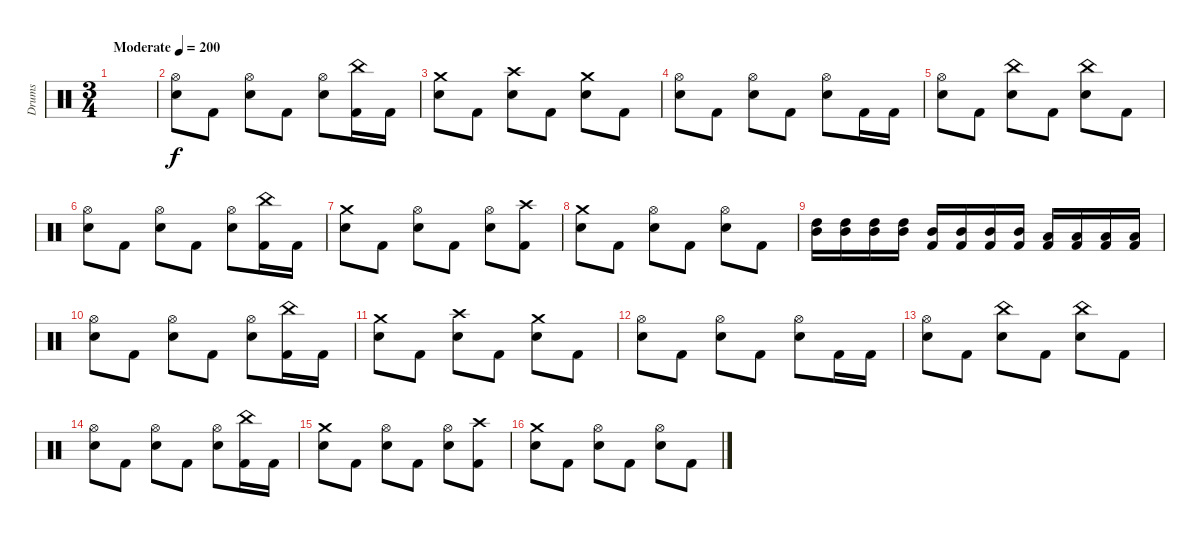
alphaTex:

\track ("Drums" "Drums") {instrument percussion}
\staff {score}
\articulation defaults
\ts (3 4)
\tempo (200 "Moderate")
\clef neutral
\ks c
|
("Hi-Hat (open)" "Snare (hit) 2").8 "Kick (hit) 2".8 ("Hi-Hat (open)" "Snare (hit) 2").8 "Kick (hit) 2".8 ("Hi-Hat (open)" "Snare (hit) 2").8 ("China (hit)" "Kick (hit) 2").16 "Kick (hit) 2".16 |
("Crash medium (hit)" "Snare (hit) 2").8 "Kick (hit) 2".8 ("Crash high (hit)" "Snare (hit) 2").8 "Kick (hit) 2".8 ("Crash medium (hit)" "Snare (hit) 2").8 "Kick (hit) 2".8 |
("Hi-Hat (open)" "Snare (hit) 2").8 "Kick (hit) 2".8 ("Hi-Hat (open)" "Snare (hit) 2").8 "Kick (hit) 2".8 ("Hi-Hat (open)" "Snare (hit) 2").8 "Kick (hit) 2".16 "Kick (hit) 2".16 |
("Hi-Hat (open)" "Snare (hit) 2").8 "Kick (hit) 2".8 ("China (hit)" "Snare (hit) 2").8 "Kick (hit) 2".8 ("China (hit)" "Snare (hit) 2").8 "Kick (hit) 2".8 |
("Hi-Hat (open)" "Snare (hit) 2").8 "Kick (hit) 2".8 ("Hi-Hat (open)" "Snare (hit) 2").8 "Kick (hit) 2".8 ("Hi-Hat (open)" "Snare (hit) 2").8 ("China (hit)" "Kick (hit) 2").16 "Kick (hit) 2".16 |
("Crash medium (hit)" "Snare (hit) 2").8 "Kick (hit) 2".8 ("Hi-Hat (open)" "Snare (hit) 2").8 "Kick (hit) 2".8 ("Hi-Hat (open)" "Snare (hit) 2").8 ("Crash high (hit)" "Kick (hit) 2").8 |
("Crash medium (hit)" "Snare (hit) 2").8 "Kick (hit) 2".8 ("Hi-Hat (open)" "Snare (hit) 2").8 "Kick (hit) 2".8 ("Hi-Hat (open)" "Snare (hit) 2").8 "Kick (hit) 2".8 |
("High Tom (hit)" "Mid Tom (hit)").16 ("High Tom (hit)" "Mid Tom (hit)").16 ("High Tom (hit)" "Mid Tom (hit)").16 ("High Tom (hit)" "Mid Tom (hit)").16 ("Mid Tom (hit)" "Kick (hit) 2").16 ("Mid Tom (hit)" "Kick (hit) 2").16 ("Mid Tom (hit)" "Kick (hit) 2").16 ("Mid Tom (hit)" "Kick (hit) 2").16 ("Low Tom (hit)" "Kick (hit) 2").16 ("Low Tom (hit)" "Kick (hit) 2").16 ("Low Tom (hit)" "Kick (hit) 2").16 ("Low Tom (hit)" "Kick (hit) 2").16 |
("Hi-Hat (open)" "Snare (hit) 2").8 "Kick (hit) 2".8 ("Hi-Hat (open)" "Snare (hit) 2").8 "Kick (hit) 2".8 ("Hi-Hat (open)" "Snare (hit) 2").8 ("China (hit)" "Kick (hit) 2").16 "Kick (hit) 2".16 |
("Crash medium (hit)" "Snare (hit) 2").8 "Kick (hit) 2".8 ("Crash high (hit)" "Snare (hit) 2").8 "Kick (hit) 2".8 ("Crash medium (hit)" "Snare (hit) 2").8 "Kick (hit) 2".8 |
("Hi-Hat (open)" "Snare (hit) 2").8 "Kick (hit) 2".8 ("Hi-Hat (open)" "Snare (hit) 2").8 "Kick (hit) 2".8 ("Hi-Hat (open)" "Snare (hit) 2").8 "Kick (hit) 2".16 "Kick (hit) 2".16 |
("Hi-Hat (open)" "Snare (hit) 2").8 "Kick (hit) 2".8 ("China (hit)" "Snare (hit) 2").8 "Kick (hit) 2".8 ("China (hit)" "Snare (hit) 2").8 "Kick (hit) 2".8 |
("Hi-Hat (open)" "Snare (hit) 2").8 "Kick (hit) 2".8 ("Hi-Hat (open)" "Snare (hit) 2").8 "Kick (hit) 2".8 ("Hi-Hat (open)" "Snare (hit) 2").8 ("China (hit)" "Kick (hit) 2").16 "Kick (hit) 2".16 |
("Crash medium (hit)" "Snare (hit) 2").8 "Kick (hit) 2".8 ("Hi-Hat (open)" "Snare (hit) 2").8 "Kick (hit) 2".8 ("Hi-Hat (open)" "Snare (hit) 2").8 ("Crash high (hit)" "Kick (hit) 2").8 |
("Crash medium (hit)" "Snare (hit) 2").8 "Kick (hit) 2".8 ("Hi-Hat (open)" "Snare (hit) 2").8 "Kick (hit) 2".8 ("Hi-Hat (open)" "Snare (hit) 2").8 "Kick (hit) 2".8
